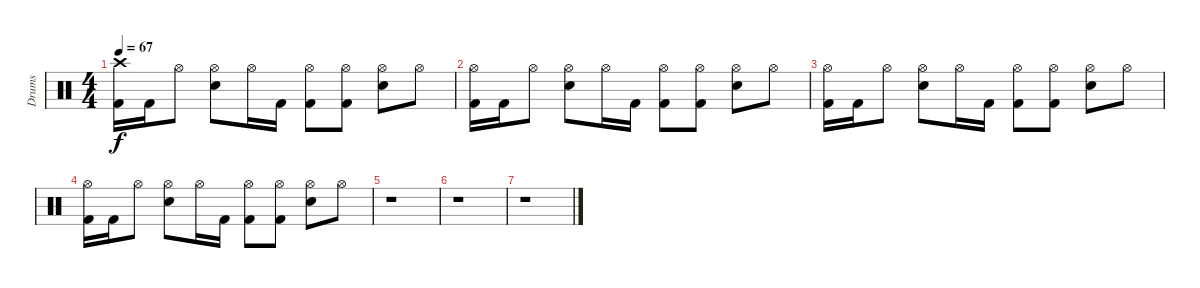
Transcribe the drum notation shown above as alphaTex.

\track ("Drums" "Drums") {instrument percussion}
\staff {score}
\articulation defaults
\ts (4 4)
\tempo 67
\clef neutral
\ks c
("Crash high (hit)" "Kick (hit) 2").16{dy f volume 0} "Kick (hit) 2".16 "Hi-Hat (open)".8 ("Hi-Hat (open)" "Snare (hit) 2").8 "Hi-Hat (open)".16 "Kick (hit) 2".16 ("Hi-Hat (open)" "Kick (hit) 2").8 ("Kick (hit) 2" "Hi-Hat (open)").8 ("Hi-Hat (open)" "Snare (hit) 2").8 "Hi-Hat (open)".8 |
("Hi-Hat (open)" "Kick (hit) 2").16 "Kick (hit) 2".16 "Hi-Hat (open)".8 ("Hi-Hat (open)" "Snare (hit) 2").8 "Hi-Hat (open)".16 "Kick (hit) 2".16 ("Hi-Hat (open)" "Kick (hit) 2").8 ("Kick (hit) 2" "Hi-Hat (open)").8 ("Hi-Hat (open)" "Snare (hit) 2").8 "Hi-Hat (open)".8 |
("Hi-Hat (open)" "Kick (hit) 2").16 "Kick (hit) 2".16 "Hi-Hat (open)".8 ("Hi-Hat (open)" "Snare (hit) 2").8 "Hi-Hat (open)".16 "Kick (hit) 2".16 ("Hi-Hat (open)" "Kick (hit) 2").8 ("Kick (hit) 2" "Hi-Hat (open)").8 ("Hi-Hat (open)" "Snare (hit) 2").8 "Hi-Hat (open)".8 |
("Hi-Hat (open)" "Kick (hit) 2").16 "Kick (hit) 2".16 "Hi-Hat (open)".8 ("Hi-Hat (open)" "Snare (hit) 2").8 "Hi-Hat (open)".16 "Kick (hit) 2".16 ("Hi-Hat (open)" "Kick (hit) 2").8 ("Kick (hit) 2" "Hi-Hat (open)").8 ("Hi-Hat (open)" "Snare (hit) 2").8 "Hi-Hat (open)".8 |
r.1 |
r.1 |
r.1
